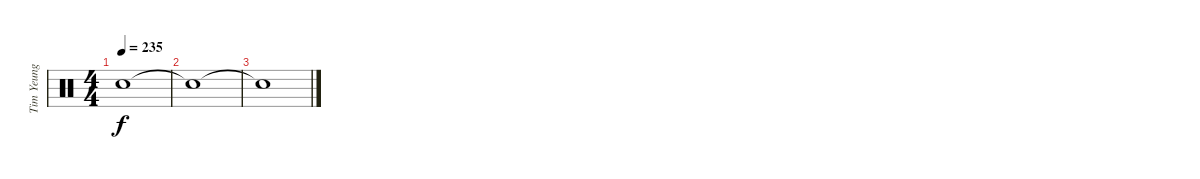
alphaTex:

\track ("Tim Yeung" "Tim Yeung") {instrument percussion}
\staff {score}
\articulation defaults
\ts (4 4)
\tempo 235
\clef neutral
\ks c "Snare (hit)"{t}.1{dy f}
|
"Snare (hit)"{t}.1 |
"Snare (hit)"{t}.1
